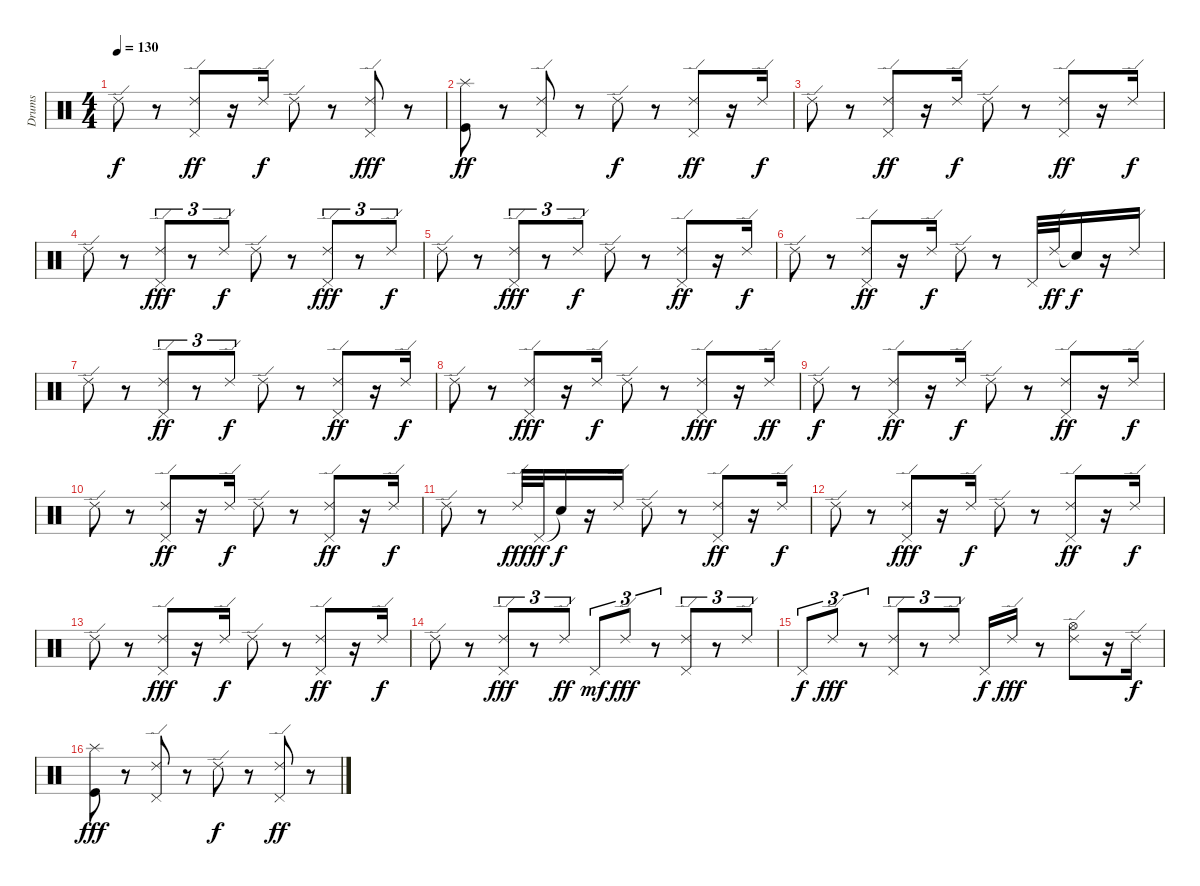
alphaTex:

\track ("Drums" "Drums") {instrument percussion}
\staff {score}
\articulation defaults
\ts (4 4)
\tempo 130
\clef neutral
\ks c "Ride (edge) 2".8{dy f}
r.8 ("Ride (edge) 2" "Pedal Hi-Hat (hit)").8{dy ff} r.16 "Ride (edge) 2".16{dy f} "Ride (edge) 2".8 r.8 ("Ride (edge) 2" "Pedal Hi-Hat (hit)").8{dy fff} r.8 |
("Splash (hit)" "Kick (hit)").8{dy ff} r.8 ("Ride (edge) 2" "Pedal Hi-Hat (hit)").8 r.8 "Ride (edge) 2".8{dy f} r.8 ("Ride (edge) 2" "Pedal Hi-Hat (hit)").8{dy ff} r.16 "Ride (edge) 2".16{dy f} |
"Ride (edge) 2".8 r.8 ("Ride (edge) 2" "Pedal Hi-Hat (hit)").8{dy ff} r.16 "Ride (edge) 2".16{dy f} "Ride (edge) 2".8 r.8 ("Ride (edge) 2" "Pedal Hi-Hat (hit)").8{dy ff} r.16 "Ride (edge) 2".16{dy f} |
"Ride (edge) 2".8 r.8 ("Ride (edge) 2" "Pedal Hi-Hat (hit)").8{tu (3 2) dy fff} r.8{tu (3 2)} "Ride (edge) 2".8{tu (3 2) dy f} "Ride (edge) 2".8 r.8 ("Ride (edge) 2" "Pedal Hi-Hat (hit)").8{tu (3 2) dy fff} r.8{tu (3 2)} "Ride (edge) 2".8{tu (3 2) dy f} |
"Ride (edge) 2".8 r.8 ("Ride (edge) 2" "Pedal Hi-Hat (hit)").8{tu (3 2) dy fff} r.8{tu (3 2)} "Ride (edge) 2".8{tu (3 2) dy f} "Ride (edge) 2".8 r.8 ("Ride (edge) 2" "Pedal Hi-Hat (hit)").8{dy ff} r.16 "Ride (edge) 2".16{dy f} |
"Ride (edge) 2".8 r.8 ("Ride (edge) 2" "Pedal Hi-Hat (hit)").8{dy ff} r.16 "Ride (edge) 2".16{dy f} "Ride (edge) 2".8 r.8 "Pedal Hi-Hat (hit)".32 "Ride (edge) 2".32{dy ff} "Snare (hit)"{t}.16{dy f} r.16 "Ride (edge) 2".16 |
"Ride (edge) 2".8 r.8 ("Ride (edge) 2" "Pedal Hi-Hat (hit)").8{tu (3 2) dy ff} r.8{tu (3 2)} "Ride (edge) 2".8{tu (3 2) dy f} "Ride (edge) 2".8 r.8 ("Ride (edge) 2" "Pedal Hi-Hat (hit)").8{dy ff} r.16 "Ride (edge) 2".16{dy f} |
"Ride (edge) 2".8 r.8 ("Ride (edge) 2" "Pedal Hi-Hat (hit)").8{dy fff} r.16 "Ride (edge) 2".16{dy f} "Ride (edge) 2".8 r.8 ("Ride (edge) 2" "Pedal Hi-Hat (hit)").8{dy fff} r.16 "Ride (edge) 2".16{dy ff} |
"Ride (edge) 2".8{dy f} r.8 ("Ride (edge) 2" "Pedal Hi-Hat (hit)").8{dy ff} r.16 "Ride (edge) 2".16{dy f} "Ride (edge) 2".8 r.8 ("Ride (edge) 2" "Pedal Hi-Hat (hit)").8{dy ff} r.16 "Ride (edge) 2".16{dy f} |
"Ride (edge) 2".8 r.8 ("Ride (edge) 2" "Pedal Hi-Hat (hit)").8{dy ff} r.16 "Ride (edge) 2".16{dy f} "Ride (edge) 2".8 r.8 ("Ride (edge) 2" "Pedal Hi-Hat (hit)").8{dy ff} r.16 "Ride (edge) 2".16{dy f} |
"Ride (edge) 2".8 r.8 "Ride (edge) 2".32{dy fff} "Pedal Hi-Hat (hit)".32{dy ff} "Snare (hit)"{t}.16{dy f} r.16 "Ride (edge) 2".16 "Ride (edge) 2".8 r.8 ("Ride (edge) 2" "Pedal Hi-Hat (hit)").8{dy ff} r.16 "Ride (edge) 2".16{dy f} |
"Ride (edge) 2".8 r.8 ("Ride (edge) 2" "Pedal Hi-Hat (hit)").8{dy fff} r.16 "Ride (edge) 2".16{dy f} "Ride (edge) 2".8 r.8 ("Ride (edge) 2" "Pedal Hi-Hat (hit)").8{dy ff} r.16 "Ride (edge) 2".16{dy f} |
"Ride (edge) 2".8 r.8 ("Ride (edge) 2" "Pedal Hi-Hat (hit)").8{dy fff} r.16 "Ride (edge) 2".16{dy f} "Ride (edge) 2".8 r.8 ("Ride (edge) 2" "Pedal Hi-Hat (hit)").8{dy ff} r.16 "Ride (edge) 2".16{dy f} |
"Ride (edge) 2".8 r.8 ("Ride (edge) 2" "Pedal Hi-Hat (hit)").8{tu (3 2) dy fff} r.8{tu (3 2)} "Ride (edge) 2".8{tu (3 2) dy ff} "Pedal Hi-Hat (hit)".8{tu (3 2) dy mf} "Ride (edge) 2".8{tu (3 2) dy fff} r.8{tu (3 2)} ("Ride (edge) 2" "Pedal Hi-Hat (hit)").8{tu (3 2)} r.8{tu (3 2)} "Ride (edge) 2".8{tu (3 2)} |
"Pedal Hi-Hat (hit)".8{tu (3 2) dy f} "Ride (edge) 2".8{tu (3 2) dy fff} r.8{tu (3 2)} ("Ride (edge) 2" "Pedal Hi-Hat (hit)").8{tu (3 2)} r.8{tu (3 2)} "Ride (edge) 2".8{tu (3 2)} "Pedal Hi-Hat (hit)".16{dy f} "Ride (edge) 2".16{dy fff} r.8 ("Ride (edge) 2" "Hi-Hat (open)").8 r.16 "Ride (edge) 2".16{dy f} |
("Splash (hit)" "Kick (hit)").8{dy fff} r.8 ("Ride (edge) 2" "Pedal Hi-Hat (hit)").8 r.8 "Ride (edge) 2".8{dy f} r.8 ("Ride (edge) 2" "Pedal Hi-Hat (hit)").8{dy ff} r.8
